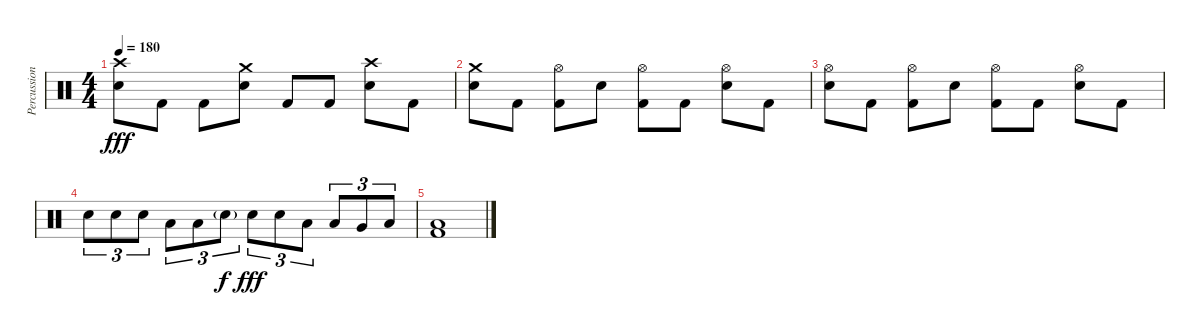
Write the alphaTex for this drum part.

\track ("Percussion" "Percussion") {instrument percussion}
\staff {score}
\articulation defaults
\ts (4 4)
\tempo 180
\clef neutral
\ks c
("Crash high (hit)" "Electric Snare (hit)").8{dy fff} "Kick (hit) 2".8 "Kick (hit) 2".8 ("Crash medium (hit)" "Electric Snare (hit)").8 "Kick (hit) 2".8 "Kick (hit) 2".8 ("Crash high (hit)" "Electric Snare (hit)").8 "Kick (hit) 2".8 |
("Crash medium (hit)" "Electric Snare (hit)").8 "Kick (hit) 2".8 ("Hi-Hat (open)" "Kick (hit) 2").8 "Electric Snare (hit)".8 ("Hi-Hat (open)" "Kick (hit) 2").8 "Kick (hit) 2".8 ("Hi-Hat (open)" "Electric Snare (hit)").8 "Kick (hit) 2".8 |
("Hi-Hat (open)" "Electric Snare (hit)").8 "Kick (hit) 2".8 ("Hi-Hat (open)" "Kick (hit) 2").8 "Electric Snare (hit)".8 ("Hi-Hat (open)" "Kick (hit) 2").8 "Kick (hit) 2".8 ("Hi-Hat (open)" "Electric Snare (hit)").8 "Kick (hit) 2".8 |
"Electric Snare (hit)".8{tu (3 2)} "Electric Snare (hit)".8{tu (3 2)} "Electric Snare (hit)".8{tu (3 2)} "Low Tom (hit)".8{tu (3 2)} "Low Tom (hit)".8{tu (3 2)} "Electric Snare (hit)"{g}.8{tu (3 2) dy f} "Electric Snare (hit)".8{tu (3 2) dy fff} "Electric Snare (hit)".8{tu (3 2)} "Low Tom (hit)".8{tu (3 2)} "Low Tom (hit)".8{tu (3 2)} "Very Low Tom (hit)".8{tu (3 2)} "Low Floor Tom (hit)".8{tu (3 2)} |
("Kick (hit) 2" "Low Floor Tom (hit)").1
